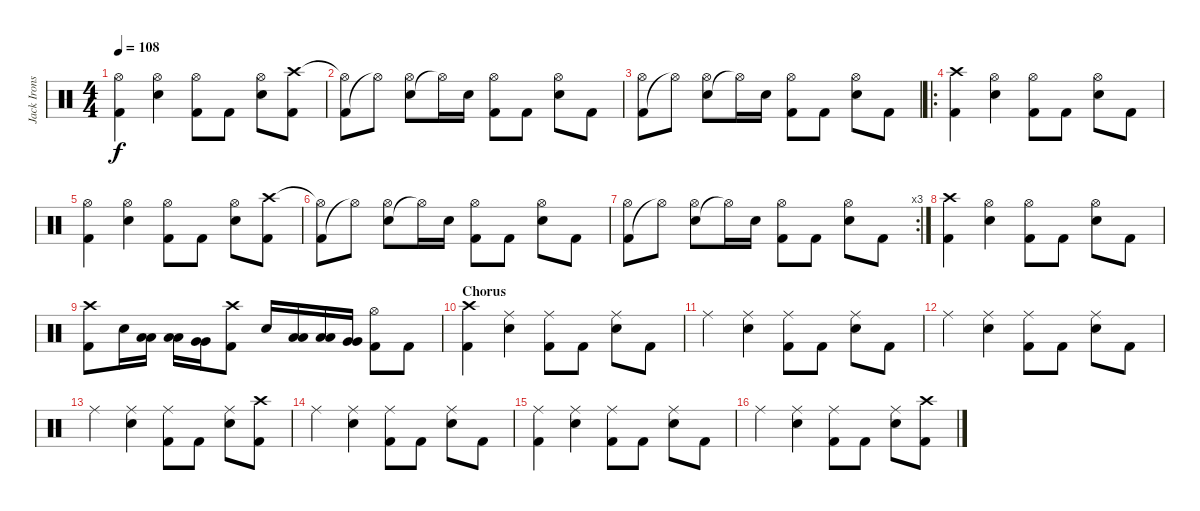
\track ("Jack Irons" "Jack Irons") {instrument percussion}
\staff {score}
\articulation defaults
\ts (4 4)
\tempo 108
\clef neutral
\ks c
("Kick (hit) 2" "Hi-Hat (open)").4{dy f} ("Electric Snare (hit)" "Hi-Hat (open)").4 ("Kick (hit) 2" "Hi-Hat (open)").8 "Kick (hit) 2".8 ("Electric Snare (hit)" "Hi-Hat (open)").8 ("Kick (hit) 2" "Crash high (hit)").8 |
("Kick (hit) 2" "Hi-Hat (open)"{t}).8 "Hi-Hat (open)"{t}.8 ("Electric Snare (hit)" "Hi-Hat (open)").8 "Hi-Hat (open)"{t}.16 "Electric Snare (hit)".16 ("Kick (hit) 2" "Hi-Hat (open)").8 "Kick (hit) 2".8 ("Electric Snare (hit)" "Hi-Hat (open)").8 "Kick (hit) 2".8 |
("Kick (hit) 2" "Hi-Hat (open)").8 "Hi-Hat (open)"{t}.8 ("Electric Snare (hit)" "Hi-Hat (open)").8 "Hi-Hat (open)"{t}.16 "Electric Snare (hit)".16 ("Kick (hit) 2" "Hi-Hat (open)").8 "Kick (hit) 2".8 ("Electric Snare (hit)" "Hi-Hat (open)").8 "Kick (hit) 2".8 |
\ro
\section ("" "")
("Kick (hit) 2" "Crash high (hit)").4 ("Electric Snare (hit)" "Hi-Hat (open)").4 ("Kick (hit) 2" "Hi-Hat (open)").8 "Kick (hit) 2".8 ("Electric Snare (hit)" "Hi-Hat (open)").8 "Kick (hit) 2".8 |
("Kick (hit) 2" "Hi-Hat (open)").4 ("Electric Snare (hit)" "Hi-Hat (open)").4 ("Kick (hit) 2" "Hi-Hat (open)").8 "Kick (hit) 2".8 ("Electric Snare (hit)" "Hi-Hat (open)").8 ("Kick (hit) 2" "Crash high (hit)").8 |
("Kick (hit) 2" "Hi-Hat (open)"{t}).8 "Hi-Hat (open)"{t}.8 ("Electric Snare (hit)" "Hi-Hat (open)").8 "Hi-Hat (open)"{t}.16 "Electric Snare (hit)".16 ("Kick (hit) 2" "Hi-Hat (open)").8 "Kick (hit) 2".8 ("Electric Snare (hit)" "Hi-Hat (open)").8 "Kick (hit) 2".8 |
\rc 3
("Kick (hit) 2" "Hi-Hat (open)").8 "Hi-Hat (open)"{t}.8 ("Electric Snare (hit)" "Hi-Hat (open)").8 "Hi-Hat (open)"{t}.16 "Electric Snare (hit)".16 ("Kick (hit) 2" "Hi-Hat (open)").8 "Kick (hit) 2".8 ("Electric Snare (hit)" "Hi-Hat (open)").8 "Kick (hit) 2".8 |
("Kick (hit) 2" "Crash high (hit)").4 ("Electric Snare (hit)" "Hi-Hat (open)").4 ("Kick (hit) 2" "Hi-Hat (open)").8 "Kick (hit) 2".8 ("Electric Snare (hit)" "Hi-Hat (open)").8 "Kick (hit) 2".8 |
("Kick (hit) 2" "Crash high (hit)").8 "Electric Snare (hit)".16 ("Low Tom (hit)" "Low Tom (hit)").16 ("Low Tom (hit)" "Low Tom (hit)").16 ("Very Low Tom (hit)" "Very Low Tom (hit)").16 ("Kick (hit) 2" "Crash high (hit)").8 "Electric Snare (hit)".16 ("Low Tom (hit)" "Low Tom (hit)").16 ("Low Tom (hit)" "Low Tom (hit)").16 ("Very Low Tom (hit)" "Very Low Tom (hit)").16 ("Kick (hit) 2" "Hi-Hat (open)").8 "Kick (hit) 2".8 |
\section ("" "Chorus")
("Kick (hit) 2" "Crash high (hit)").4 ("Electric Snare (hit)" "Ride (middle)").4 ("Kick (hit) 2" "Ride (middle)").8 "Kick (hit) 2".8 ("Electric Snare (hit)" "Ride (middle)").8 "Kick (hit) 2".8 |
"Ride (middle)".4 ("Electric Snare (hit)" "Ride (middle)").4 ("Kick (hit) 2" "Ride (middle)").8 "Kick (hit) 2".8 ("Electric Snare (hit)" "Ride (middle)").8 "Kick (hit) 2".8 |
"Ride (middle)".4 ("Electric Snare (hit)" "Ride (middle)").4 ("Kick (hit) 2" "Ride (middle)").8 "Kick (hit) 2".8 ("Electric Snare (hit)" "Ride (middle)").8 "Kick (hit) 2".8 |
"Ride (middle)".4 ("Electric Snare (hit)" "Ride (middle)").4 ("Kick (hit) 2" "Ride (middle)").8 "Kick (hit) 2".8 ("Electric Snare (hit)" "Ride (middle)").8 ("Kick (hit) 2" "Crash high (hit)").8 |
"Ride (middle)".4 ("Electric Snare (hit)" "Ride (middle)").4 ("Kick (hit) 2" "Ride (middle)").8 "Kick (hit) 2".8 ("Electric Snare (hit)" "Ride (middle)").8 "Kick (hit) 2".8 |
("Kick (hit) 2" "Ride (middle)").4 ("Electric Snare (hit)" "Ride (middle)").4 ("Kick (hit) 2" "Ride (middle)").8 "Kick (hit) 2".8 ("Electric Snare (hit)" "Ride (middle)").8 "Kick (hit) 2".8 |
"Ride (middle)".4 ("Electric Snare (hit)" "Ride (middle)").4 ("Kick (hit) 2" "Ride (middle)").8 "Kick (hit) 2".8 ("Electric Snare (hit)" "Ride (middle)").8 ("Kick (hit) 2" "Crash high (hit)").8
